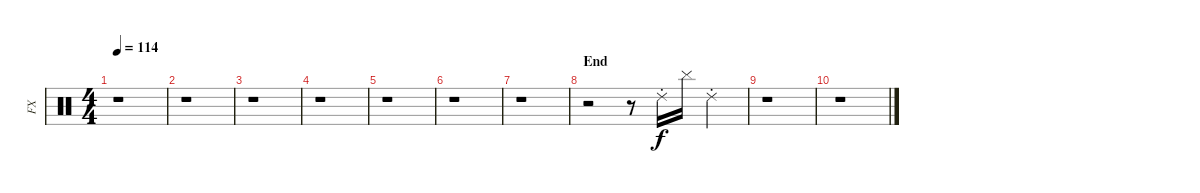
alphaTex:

\track ("FX" "FX") {instrument percussion}
\staff {score}
\articulation defaults
\ts (4 4)
\tempo 114
\clef neutral
\ks c
r.1{dy f} |
r.1 |
r.1 |
r.1 |
r.1 |
r.1 |
r.1 |
\section ("" "End")
r.2 r.8 "Ride (choke) 2".16 "Cymbal (hit)".16 "Ride (choke) 2".4 |
r.1 |
r.1
